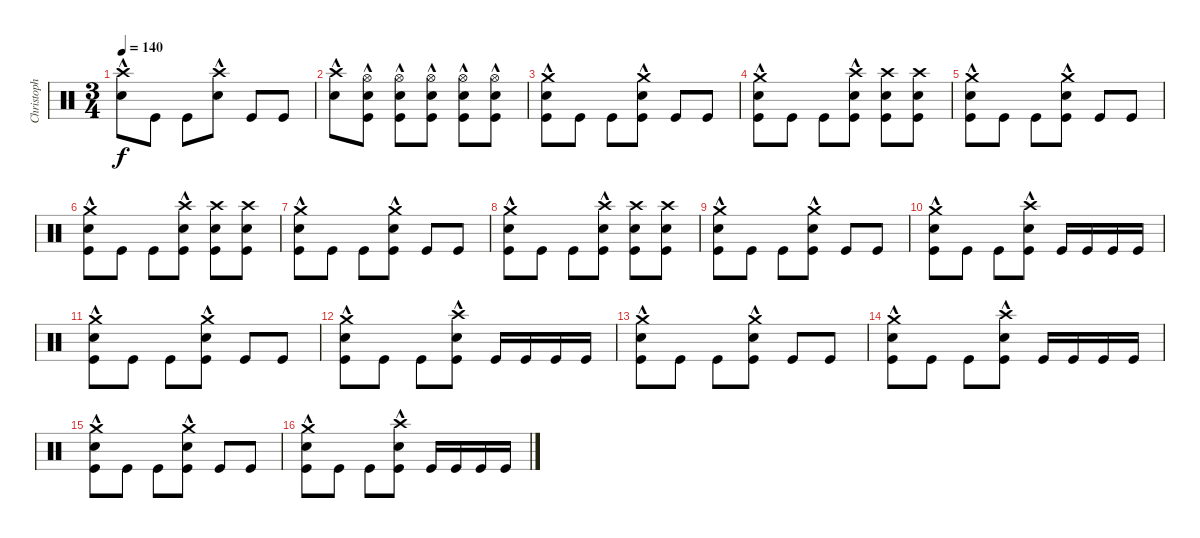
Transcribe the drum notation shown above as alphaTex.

\track ("Christoph \"Doom\" Schneider" "Christoph ") {instrument percussion}
\staff {score}
\articulation defaults
\ts (3 4)
\tempo 140
\clef neutral
\ks c
("Crash high (hit)" "Snare (hit) 2"{hac}).8{dy f} "Kick (hit)".8 "Kick (hit)".8 ("Crash high (hit)" "Snare (hit) 2"{hac}).8 "Kick (hit)".8 "Kick (hit)".8 |
("Crash high (hit)" "Snare (hit) 2"{hac}).8 ("Hi-Hat (open)" "Kick (hit)" "Snare (hit) 2"{hac}).8 ("Hi-Hat (open)" "Kick (hit)" "Snare (hit) 2"{hac}).8 ("Hi-Hat (open)" "Kick (hit)" "Snare (hit) 2"{hac}).8 ("Hi-Hat (open)" "Kick (hit)" "Snare (hit) 2"{hac}).8 ("Hi-Hat (open)" "Kick (hit)" "Snare (hit) 2"{hac}).8 |
("Crash medium (hit)" "Kick (hit)" "Snare (hit) 2"{hac}).8 "Kick (hit)".8 "Kick (hit)".8 ("Crash medium (hit)" "Kick (hit)" "Snare (hit) 2"{hac}).8 "Kick (hit)".8 "Kick (hit)".8 |
("Crash medium (hit)" "Kick (hit)" "Snare (hit) 2"{hac}).8 "Kick (hit)".8 "Kick (hit)".8 ("Crash high (hit)" "Kick (hit)" "Snare (hit) 2"{hac}).8 ("Crash high (hit)" "Kick (hit)" "Snare (hit) 2").8 ("Crash high (hit)" "Kick (hit)" "Snare (hit) 2").8 |
("Crash medium (hit)" "Kick (hit)" "Snare (hit) 2"{hac}).8 "Kick (hit)".8 "Kick (hit)".8 ("Crash medium (hit)" "Kick (hit)" "Snare (hit) 2"{hac}).8 "Kick (hit)".8 "Kick (hit)".8 |
("Crash medium (hit)" "Kick (hit)" "Snare (hit) 2"{hac}).8 "Kick (hit)".8 "Kick (hit)".8 ("Crash high (hit)" "Kick (hit)" "Snare (hit) 2"{hac}).8 ("Crash high (hit)" "Kick (hit)" "Snare (hit) 2").8 ("Crash high (hit)" "Kick (hit)" "Snare (hit) 2").8 |
("Crash medium (hit)" "Kick (hit)" "Snare (hit) 2"{hac}).8 "Kick (hit)".8 "Kick (hit)".8 ("Crash medium (hit)" "Kick (hit)" "Snare (hit) 2"{hac}).8 "Kick (hit)".8 "Kick (hit)".8 |
("Crash medium (hit)" "Kick (hit)" "Snare (hit) 2"{hac}).8 "Kick (hit)".8 "Kick (hit)".8 ("Crash high (hit)" "Kick (hit)" "Snare (hit) 2"{hac}).8 ("Crash high (hit)" "Kick (hit)" "Snare (hit) 2").8 ("Crash high (hit)" "Kick (hit)" "Snare (hit) 2").8 |
("Crash medium (hit)" "Kick (hit)" "Snare (hit) 2"{hac}).8 "Kick (hit)".8 "Kick (hit)".8 ("Crash medium (hit)" "Kick (hit)" "Snare (hit) 2"{hac}).8 "Kick (hit)".8 "Kick (hit)".8 |
("Crash medium (hit)" "Kick (hit)" "Snare (hit) 2"{hac}).8 "Kick (hit)".8 "Kick (hit)".8 ("Crash high (hit)" "Kick (hit)" "Snare (hit) 2"{hac}).8 "Kick (hit)".16 "Kick (hit)".16 "Kick (hit)".16 "Kick (hit)".16 |
("Crash medium (hit)" "Kick (hit)" "Snare (hit) 2"{hac}).8 "Kick (hit)".8 "Kick (hit)".8 ("Crash medium (hit)" "Kick (hit)" "Snare (hit) 2"{hac}).8 "Kick (hit)".8 "Kick (hit)".8 |
("Crash medium (hit)" "Kick (hit)" "Snare (hit) 2"{hac}).8 "Kick (hit)".8 "Kick (hit)".8 ("Crash high (hit)" "Kick (hit)" "Snare (hit) 2"{hac}).8 "Kick (hit)".16 "Kick (hit)".16 "Kick (hit)".16 "Kick (hit)".16 |
("Crash medium (hit)" "Kick (hit)" "Snare (hit) 2"{hac}).8 "Kick (hit)".8 "Kick (hit)".8 ("Crash medium (hit)" "Kick (hit)" "Snare (hit) 2"{hac}).8 "Kick (hit)".8 "Kick (hit)".8 |
("Crash medium (hit)" "Kick (hit)" "Snare (hit) 2"{hac}).8 "Kick (hit)".8 "Kick (hit)".8 ("Crash high (hit)" "Kick (hit)" "Snare (hit) 2"{hac}).8 "Kick (hit)".16 "Kick (hit)".16 "Kick (hit)".16 "Kick (hit)".16 |
("Crash medium (hit)" "Kick (hit)" "Snare (hit) 2"{hac}).8 "Kick (hit)".8 "Kick (hit)".8 ("Crash medium (hit)" "Kick (hit)" "Snare (hit) 2"{hac}).8 "Kick (hit)".8 "Kick (hit)".8 |
("Crash medium (hit)" "Kick (hit)" "Snare (hit) 2"{hac}).8 "Kick (hit)".8 "Kick (hit)".8 ("Crash high (hit)" "Kick (hit)" "Snare (hit) 2"{hac}).8 "Kick (hit)".16 "Kick (hit)".16 "Kick (hit)".16 "Kick (hit)".16
